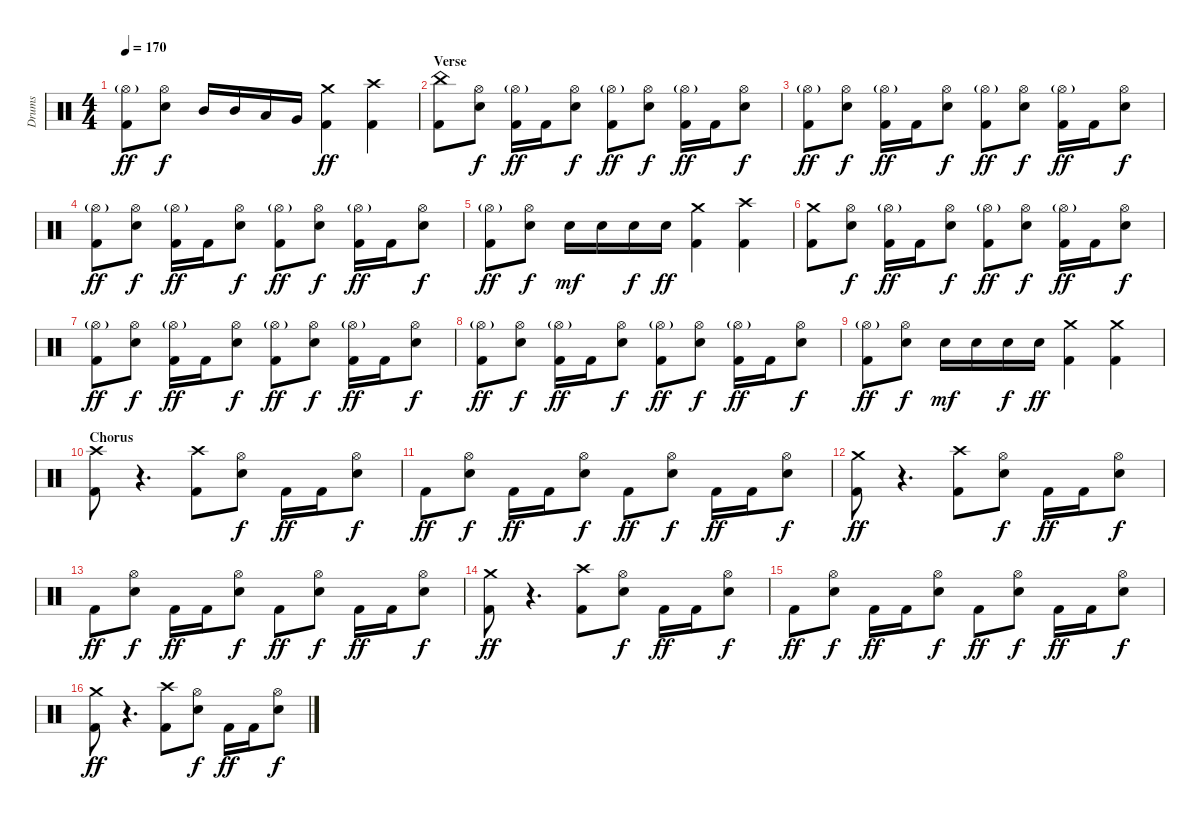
\track ("Drums" "Drums") {instrument percussion}
\staff {score}
\articulation defaults
\ts (4 4)
\tempo 170
\clef neutral
\ks c
("Hi-Hat (open)"{g} "Kick (hit) 2").8{dy ff} ("Hi-Hat (open)" "Electric Snare (hit)").8{dy f} "Mid Tom (hit)".16 "Mid Tom (hit)".16 "Low Tom (hit)".16 "Very Low Tom (hit)".16 ("Crash medium (hit)" "Kick (hit) 2").4{dy ff} ("Crash high (hit)" "Kick (hit) 2").4 |
\section ("" "Verse")
("China (hit)" "Kick (hit) 2").8 ("Hi-Hat (open)" "Electric Snare (hit)").8{dy f} ("Hi-Hat (open)"{g} "Kick (hit) 2").16{dy ff} "Kick (hit) 2".16 ("Hi-Hat (open)" "Electric Snare (hit)").8{dy f} ("Hi-Hat (open)"{g} "Kick (hit) 2").8{dy ff} ("Hi-Hat (open)" "Electric Snare (hit)").8{dy f} ("Hi-Hat (open)"{g} "Kick (hit) 2").16{dy ff} "Kick (hit) 2".16 ("Hi-Hat (open)" "Electric Snare (hit)").8{dy f} |
("Hi-Hat (open)"{g} "Kick (hit) 2").8{dy ff} ("Hi-Hat (open)" "Electric Snare (hit)").8{dy f} ("Hi-Hat (open)"{g} "Kick (hit) 2").16{dy ff} "Kick (hit) 2".16 ("Hi-Hat (open)" "Electric Snare (hit)").8{dy f} ("Hi-Hat (open)"{g} "Kick (hit) 2").8{dy ff} ("Hi-Hat (open)" "Electric Snare (hit)").8{dy f} ("Hi-Hat (open)"{g} "Kick (hit) 2").16{dy ff} "Kick (hit) 2".16 ("Hi-Hat (open)" "Electric Snare (hit)").8{dy f} |
("Hi-Hat (open)"{g} "Kick (hit) 2").8{dy ff} ("Hi-Hat (open)" "Electric Snare (hit)").8{dy f} ("Hi-Hat (open)"{g} "Kick (hit) 2").16{dy ff} "Kick (hit) 2".16 ("Hi-Hat (open)" "Electric Snare (hit)").8{dy f} ("Hi-Hat (open)"{g} "Kick (hit) 2").8{dy ff} ("Hi-Hat (open)" "Electric Snare (hit)").8{dy f} ("Hi-Hat (open)"{g} "Kick (hit) 2").16{dy ff} "Kick (hit) 2".16 ("Hi-Hat (open)" "Electric Snare (hit)").8{dy f} |
("Hi-Hat (open)"{g} "Kick (hit) 2").8{dy ff} ("Hi-Hat (open)" "Electric Snare (hit)").8{dy f} "Electric Snare (hit)".16{dy mf} "Electric Snare (hit)".16 "Electric Snare (hit)".16{dy f} "Electric Snare (hit)".16{dy ff} ("Crash medium (hit)" "Kick (hit) 2").4 ("Crash high (hit)" "Kick (hit) 2").4 |
("Crash medium (hit)" "Kick (hit) 2").8 ("Hi-Hat (open)" "Electric Snare (hit)").8{dy f} ("Hi-Hat (open)"{g} "Kick (hit) 2").16{dy ff} "Kick (hit) 2".16 ("Hi-Hat (open)" "Electric Snare (hit)").8{dy f} ("Hi-Hat (open)"{g} "Kick (hit) 2").8{dy ff} ("Hi-Hat (open)" "Electric Snare (hit)").8{dy f} ("Hi-Hat (open)"{g} "Kick (hit) 2").16{dy ff} "Kick (hit) 2".16 ("Hi-Hat (open)" "Electric Snare (hit)").8{dy f} |
("Hi-Hat (open)"{g} "Kick (hit) 2").8{dy ff} ("Hi-Hat (open)" "Electric Snare (hit)").8{dy f} ("Hi-Hat (open)"{g} "Kick (hit) 2").16{dy ff} "Kick (hit) 2".16 ("Hi-Hat (open)" "Electric Snare (hit)").8{dy f} ("Hi-Hat (open)"{g} "Kick (hit) 2").8{dy ff} ("Hi-Hat (open)" "Electric Snare (hit)").8{dy f} ("Hi-Hat (open)"{g} "Kick (hit) 2").16{dy ff} "Kick (hit) 2".16 ("Hi-Hat (open)" "Electric Snare (hit)").8{dy f} |
("Hi-Hat (open)"{g} "Kick (hit) 2").8{dy ff} ("Hi-Hat (open)" "Electric Snare (hit)").8{dy f} ("Hi-Hat (open)"{g} "Kick (hit) 2").16{dy ff} "Kick (hit) 2".16 ("Hi-Hat (open)" "Electric Snare (hit)").8{dy f} ("Hi-Hat (open)"{g} "Kick (hit) 2").8{dy ff} ("Hi-Hat (open)" "Electric Snare (hit)").8{dy f} ("Hi-Hat (open)"{g} "Kick (hit) 2").16{dy ff} "Kick (hit) 2".16 ("Hi-Hat (open)" "Electric Snare (hit)").8{dy f} |
("Hi-Hat (open)"{g} "Kick (hit) 2").8{dy ff} ("Hi-Hat (open)" "Electric Snare (hit)").8{dy f} "Electric Snare (hit)".16{dy mf} "Electric Snare (hit)".16 "Electric Snare (hit)".16{dy f} "Electric Snare (hit)".16{dy ff} ("Crash medium (hit)" "Kick (hit) 2").4 ("Crash medium (hit)" "Kick (hit) 2").4 |
\section ("" "Chorus")
("Crash high (hit)" "Kick (hit) 2").8 r.4{d volume 4} ("Crash high (hit)" "Kick (hit) 2").8{volume 13} ("Hi-Hat (open)" "Electric Snare (hit)").8{dy f} "Kick (hit) 2".16{dy ff} "Kick (hit) 2".16 ("Hi-Hat (open)" "Electric Snare (hit)").8{dy f} |
"Kick (hit) 2".8{dy ff} ("Hi-Hat (open)" "Electric Snare (hit)").8{dy f} "Kick (hit) 2".16{dy ff} "Kick (hit) 2".16 ("Hi-Hat (open)" "Electric Snare (hit)").8{dy f} "Kick (hit) 2".8{dy ff} ("Hi-Hat (open)" "Electric Snare (hit)").8{dy f} "Kick (hit) 2".16{dy ff} "Kick (hit) 2".16 ("Hi-Hat (open)" "Electric Snare (hit)").8{dy f} |
("Crash medium (hit)" "Kick (hit) 2").8{dy ff volume 13} r.4{d volume 4} ("Crash high (hit)" "Kick (hit) 2").8{volume 13} ("Hi-Hat (open)" "Electric Snare (hit)").8{dy f} "Kick (hit) 2".16{dy ff} "Kick (hit) 2".16 ("Hi-Hat (open)" "Electric Snare (hit)").8{dy f} |
"Kick (hit) 2".8{dy ff} ("Hi-Hat (open)" "Electric Snare (hit)").8{dy f} "Kick (hit) 2".16{dy ff} "Kick (hit) 2".16 ("Hi-Hat (open)" "Electric Snare (hit)").8{dy f} "Kick (hit) 2".8{dy ff} ("Hi-Hat (open)" "Electric Snare (hit)").8{dy f} "Kick (hit) 2".16{dy ff} "Kick (hit) 2".16 ("Hi-Hat (open)" "Electric Snare (hit)").8{dy f} |
("Crash medium (hit)" "Kick (hit) 2").8{dy ff volume 13} r.4{d volume 4} ("Crash high (hit)" "Kick (hit) 2").8{volume 13} ("Hi-Hat (open)" "Electric Snare (hit)").8{dy f} "Kick (hit) 2".16{dy ff} "Kick (hit) 2".16 ("Hi-Hat (open)" "Electric Snare (hit)").8{dy f} |
"Kick (hit) 2".8{dy ff} ("Hi-Hat (open)" "Electric Snare (hit)").8{dy f} "Kick (hit) 2".16{dy ff} "Kick (hit) 2".16 ("Hi-Hat (open)" "Electric Snare (hit)").8{dy f} "Kick (hit) 2".8{dy ff} ("Hi-Hat (open)" "Electric Snare (hit)").8{dy f} "Kick (hit) 2".16{dy ff} "Kick (hit) 2".16 ("Hi-Hat (open)" "Electric Snare (hit)").8{dy f} |
("Crash medium (hit)" "Kick (hit) 2").8{dy ff volume 13} r.4{d volume 4} ("Crash high (hit)" "Kick (hit) 2").8{volume 13} ("Hi-Hat (open)" "Electric Snare (hit)").8{dy f} "Kick (hit) 2".16{dy ff} "Kick (hit) 2".16 ("Hi-Hat (open)" "Electric Snare (hit)").8{dy f}
